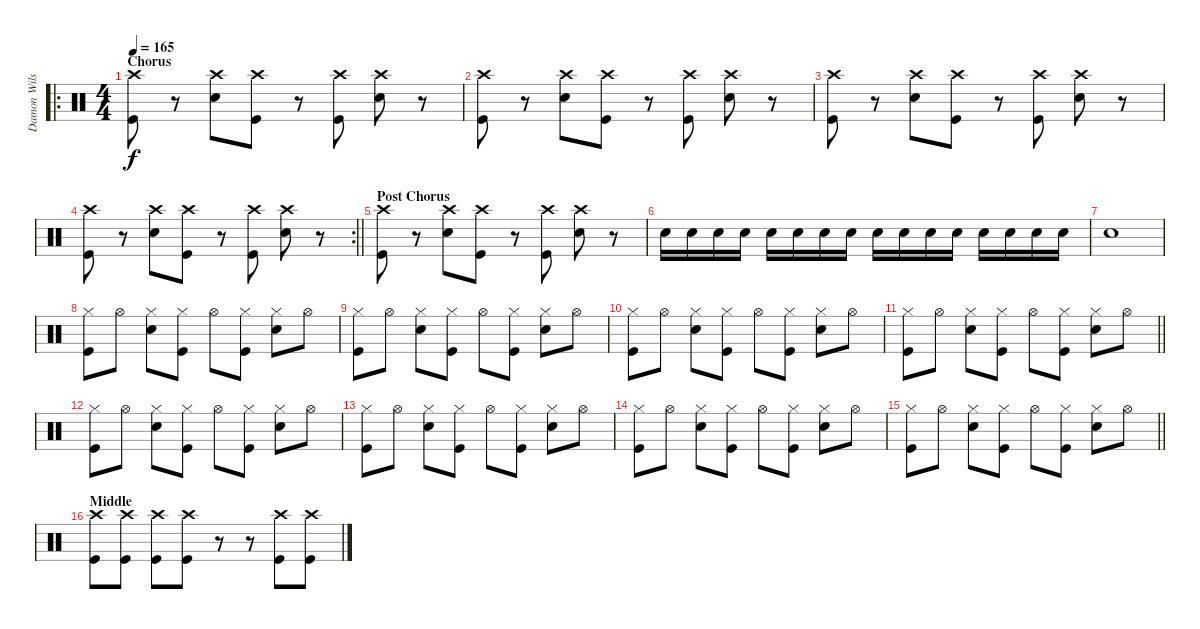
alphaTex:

\track ("Damon Wilson" "Damon Wils") {instrument percussion}
\staff {score}
\articulation defaults
\ro
\ts (4 4)
\section ("" "Chorus")
\tempo 165
\clef neutral
\ks c
("Crash high (hit)" "Kick (hit)").8{dy f} r.8 ("Crash high (hit)" "Snare (hit) 2").8 ("Crash high (hit)" "Kick (hit)").8 r.8 ("Crash high (hit)" "Kick (hit)").8 ("Crash high (hit)" "Snare (hit) 2").8 r.8 |
("Crash high (hit)" "Kick (hit)").8 r.8 ("Crash high (hit)" "Snare (hit) 2").8 ("Crash high (hit)" "Kick (hit)").8 r.8 ("Crash high (hit)" "Kick (hit)").8 ("Crash high (hit)" "Snare (hit) 2").8 r.8 |
("Crash high (hit)" "Kick (hit)").8 r.8 ("Crash high (hit)" "Snare (hit) 2").8 ("Crash high (hit)" "Kick (hit)").8 r.8 ("Crash high (hit)" "Kick (hit)").8 ("Crash high (hit)" "Snare (hit) 2").8 r.8 |
\rc 2
\barLineRight lightlight
("Crash high (hit)" "Kick (hit)").8 r.8 ("Crash high (hit)" "Snare (hit) 2").8 ("Crash high (hit)" "Kick (hit)").8 r.8 ("Crash high (hit)" "Kick (hit)").8 ("Crash high (hit)" "Snare (hit) 2").8 r.8 |
\section ("" "Post Chorus")
("Crash high (hit)" "Kick (hit)").8 r.8 ("Crash high (hit)" "Snare (hit) 2").8 ("Crash high (hit)" "Kick (hit)").8 r.8 ("Crash high (hit)" "Kick (hit)").8 ("Crash high (hit)" "Snare (hit) 2").8 r.8 |
"Snare (hit) 2".16 "Snare (hit) 2".16 "Snare (hit) 2".16 "Snare (hit) 2".16 "Snare (hit) 2".16 "Snare (hit) 2".16 "Snare (hit) 2".16 "Snare (hit) 2".16 "Snare (hit) 2".16 "Snare (hit) 2".16 "Snare (hit) 2".16 "Snare (hit) 2".16 "Snare (hit) 2".16 "Snare (hit) 2".16 "Snare (hit) 2".16 "Snare (hit) 2".16 |
"Snare (hit) 2".1 |
("Hi-Hat (closed)" "Kick (hit)").8 "Hi-Hat (open)".8 ("Hi-Hat (closed)" "Snare (hit) 2").8 ("Hi-Hat (closed)" "Kick (hit)").8 "Hi-Hat (open)".8 ("Hi-Hat (closed)" "Kick (hit)").8 ("Hi-Hat (closed)" "Snare (hit) 2").8 "Hi-Hat (open)".8 |
("Hi-Hat (closed)" "Kick (hit)").8 "Hi-Hat (open)".8 ("Hi-Hat (closed)" "Snare (hit) 2").8 ("Hi-Hat (closed)" "Kick (hit)").8 "Hi-Hat (open)".8 ("Hi-Hat (closed)" "Kick (hit)").8 ("Hi-Hat (closed)" "Snare (hit) 2").8 "Hi-Hat (open)".8 |
("Hi-Hat (closed)" "Kick (hit)").8 "Hi-Hat (open)".8 ("Hi-Hat (closed)" "Snare (hit) 2").8 ("Hi-Hat (closed)" "Kick (hit)").8 "Hi-Hat (open)".8 ("Hi-Hat (closed)" "Kick (hit)").8 ("Hi-Hat (closed)" "Snare (hit) 2").8 "Hi-Hat (open)".8 |
\barLineRight lightlight
("Hi-Hat (closed)" "Kick (hit)").8 "Hi-Hat (open)".8 ("Hi-Hat (closed)" "Snare (hit) 2").8 ("Hi-Hat (closed)" "Kick (hit)").8 "Hi-Hat (open)".8 ("Hi-Hat (closed)" "Kick (hit)").8 ("Hi-Hat (closed)" "Snare (hit) 2").8 "Hi-Hat (open)".8 |
("Hi-Hat (closed)" "Kick (hit)").8 "Hi-Hat (open)".8 ("Hi-Hat (closed)" "Snare (hit) 2").8 ("Hi-Hat (closed)" "Kick (hit)").8 "Hi-Hat (open)".8 ("Hi-Hat (closed)" "Kick (hit)").8 ("Hi-Hat (closed)" "Snare (hit) 2").8 "Hi-Hat (open)".8 |
("Hi-Hat (closed)" "Kick (hit)").8 "Hi-Hat (open)".8 ("Hi-Hat (closed)" "Snare (hit) 2").8 ("Hi-Hat (closed)" "Kick (hit)").8 "Hi-Hat (open)".8 ("Hi-Hat (closed)" "Kick (hit)").8 ("Hi-Hat (closed)" "Snare (hit) 2").8 "Hi-Hat (open)".8 |
("Hi-Hat (closed)" "Kick (hit)").8 "Hi-Hat (open)".8 ("Hi-Hat (closed)" "Snare (hit) 2").8 ("Hi-Hat (closed)" "Kick (hit)").8 "Hi-Hat (open)".8 ("Hi-Hat (closed)" "Kick (hit)").8 ("Hi-Hat (closed)" "Snare (hit) 2").8 "Hi-Hat (open)".8 |
\barLineRight lightlight
("Hi-Hat (closed)" "Kick (hit)").8 "Hi-Hat (open)".8 ("Hi-Hat (closed)" "Snare (hit) 2").8 ("Hi-Hat (closed)" "Kick (hit)").8 "Hi-Hat (open)".8 ("Hi-Hat (closed)" "Kick (hit)").8 ("Hi-Hat (closed)" "Snare (hit) 2").8 "Hi-Hat (open)".8 |
\section ("" "Middle")
("Crash high (hit)" "Kick (hit)").8 ("Crash high (hit)" "Kick (hit)").8 ("Crash high (hit)" "Kick (hit)").8 ("Crash high (hit)" "Kick (hit)").8 r.8 r.8 ("Crash high (hit)" "Kick (hit)").8 ("Crash high (hit)" "Kick (hit)").8
